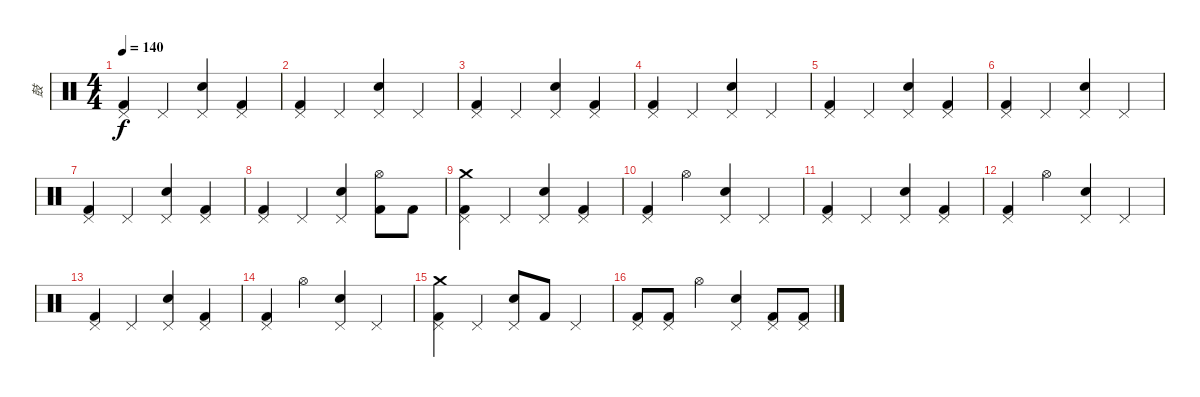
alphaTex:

\track ("鼓" "鼓") {instrument percussion}
\staff {score}
\articulation defaults
\ts (4 4)
\tempo 140
\clef neutral
\ks c
("Pedal Hi-Hat (hit)" "Kick (hit) 2").4{dy f} "Pedal Hi-Hat (hit)".4 ("Pedal Hi-Hat (hit)" "Snare (hit) 2").4 ("Pedal Hi-Hat (hit)" "Kick (hit) 2").4 |
("Pedal Hi-Hat (hit)" "Kick (hit) 2").4 "Pedal Hi-Hat (hit)".4 ("Pedal Hi-Hat (hit)" "Snare (hit) 2").4 "Pedal Hi-Hat (hit)".4 |
("Pedal Hi-Hat (hit)" "Kick (hit) 2").4 "Pedal Hi-Hat (hit)".4 ("Pedal Hi-Hat (hit)" "Snare (hit) 2").4 ("Pedal Hi-Hat (hit)" "Kick (hit) 2").4 |
("Pedal Hi-Hat (hit)" "Kick (hit) 2").4 "Pedal Hi-Hat (hit)".4 ("Pedal Hi-Hat (hit)" "Snare (hit) 2").4 "Pedal Hi-Hat (hit)".4 |
("Pedal Hi-Hat (hit)" "Kick (hit) 2").4 "Pedal Hi-Hat (hit)".4 ("Pedal Hi-Hat (hit)" "Snare (hit) 2").4 ("Pedal Hi-Hat (hit)" "Kick (hit) 2").4 |
("Pedal Hi-Hat (hit)" "Kick (hit) 2").4 "Pedal Hi-Hat (hit)".4 ("Pedal Hi-Hat (hit)" "Snare (hit) 2").4 "Pedal Hi-Hat (hit)".4 |
("Pedal Hi-Hat (hit)" "Kick (hit) 2").4 "Pedal Hi-Hat (hit)".4 ("Pedal Hi-Hat (hit)" "Snare (hit) 2").4 ("Pedal Hi-Hat (hit)" "Kick (hit) 2").4 |
("Pedal Hi-Hat (hit)" "Kick (hit) 2").4 "Pedal Hi-Hat (hit)".4 ("Pedal Hi-Hat (hit)" "Snare (hit) 2").4 ("Hi-Hat (open)" "Kick (hit) 2").8 "Kick (hit) 2".8 |
("Crash medium (hit)" "Pedal Hi-Hat (hit)" "Kick (hit) 2").4 "Pedal Hi-Hat (hit)".4 ("Pedal Hi-Hat (hit)" "Snare (hit) 2").4 ("Pedal Hi-Hat (hit)" "Kick (hit) 2").4 |
("Pedal Hi-Hat (hit)" "Kick (hit) 2").4 "Hi-Hat (open)".4 ("Pedal Hi-Hat (hit)" "Snare (hit) 2").4 "Pedal Hi-Hat (hit)".4 |
("Pedal Hi-Hat (hit)" "Kick (hit) 2").4 "Pedal Hi-Hat (hit)".4 ("Pedal Hi-Hat (hit)" "Snare (hit) 2").4 ("Pedal Hi-Hat (hit)" "Kick (hit) 2").4 |
("Pedal Hi-Hat (hit)" "Kick (hit) 2").4 "Hi-Hat (open)".4 ("Pedal Hi-Hat (hit)" "Snare (hit) 2").4 "Pedal Hi-Hat (hit)".4 |
("Pedal Hi-Hat (hit)" "Kick (hit) 2").4 "Pedal Hi-Hat (hit)".4 ("Pedal Hi-Hat (hit)" "Snare (hit) 2").4 ("Pedal Hi-Hat (hit)" "Kick (hit) 2").4 |
("Pedal Hi-Hat (hit)" "Kick (hit) 2").4 "Hi-Hat (open)".4 ("Pedal Hi-Hat (hit)" "Snare (hit) 2").4 "Pedal Hi-Hat (hit)".4 |
("Crash medium (hit)" "Pedal Hi-Hat (hit)" "Kick (hit) 2").4 "Pedal Hi-Hat (hit)".4 ("Pedal Hi-Hat (hit)" "Snare (hit) 2").8 "Kick (hit) 2".8 "Pedal Hi-Hat (hit)".4 |
("Pedal Hi-Hat (hit)" "Kick (hit) 2").8 ("Pedal Hi-Hat (hit)" "Kick (hit) 2").8 "Hi-Hat (open)".4 ("Pedal Hi-Hat (hit)" "Snare (hit) 2").4 ("Pedal Hi-Hat (hit)" "Kick (hit) 2").8 ("Pedal Hi-Hat (hit)" "Kick (hit) 2").8
